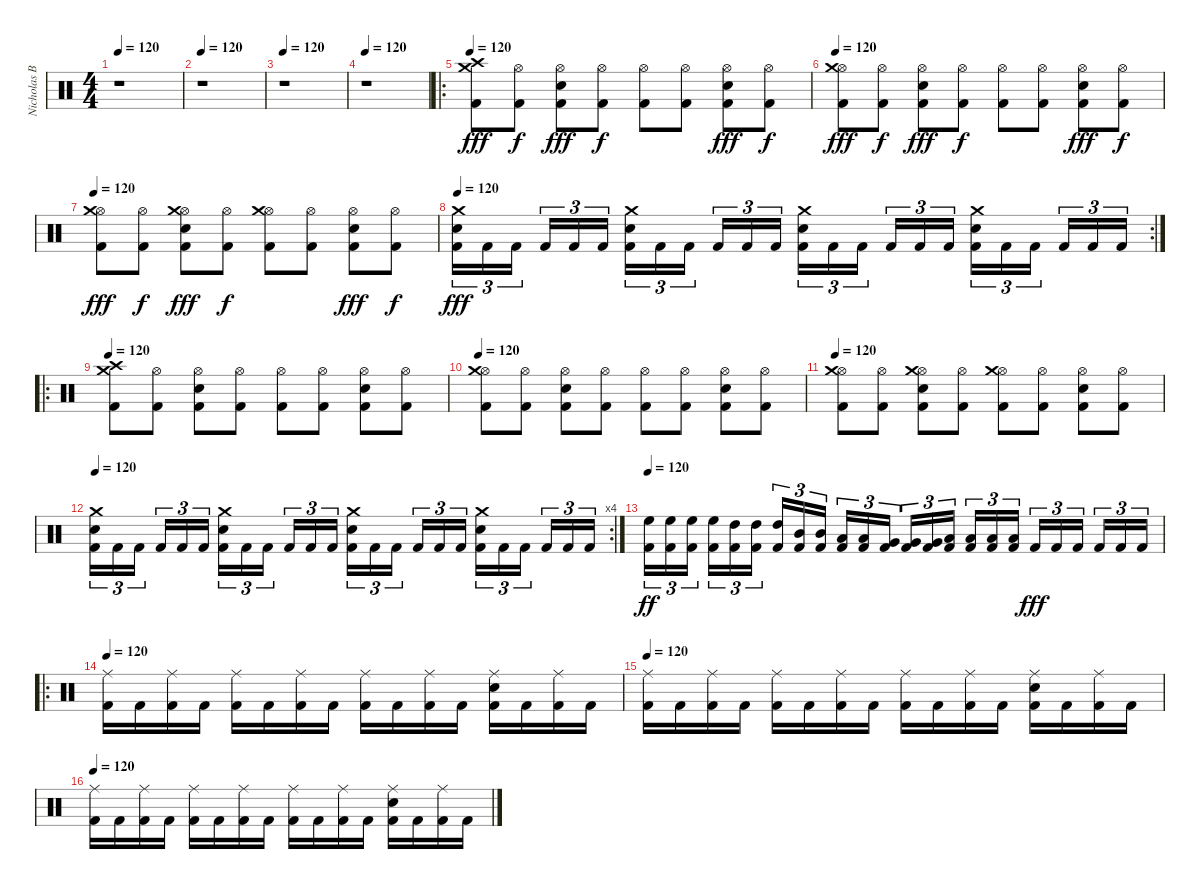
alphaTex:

\track ("Nicholas Barker - (Drums And Percussion)" "Nicholas B") {instrument percussion}
\staff {score}
\articulation defaults
\ts (4 4)
\tempo 120
\clef neutral
\ks c
r.1{dy fff} |
\tempo 120
r.1 |
\tempo 120
r.1 |
\tempo 120
r.1 |
\ro
\tempo 120
("Crash high (hit)" "Crash medium (hit)" "Kick (hit) 2").8 ("Hi-Hat (open)" "Kick (hit) 2").8{dy f} ("Hi-Hat (open)" "Electric Snare (hit)" "Kick (hit) 2").8{dy fff} ("Hi-Hat (open)" "Kick (hit) 2").8{dy f} ("Hi-Hat (open)" "Kick (hit) 2").8 ("Hi-Hat (open)" "Kick (hit) 2").8 ("Hi-Hat (open)" "Electric Snare (hit)" "Kick (hit) 2").8{dy fff} ("Hi-Hat (open)" "Kick (hit) 2").8{dy f} |
\tempo 120
("Hi-Hat (open)" "Crash medium (hit)" "Kick (hit) 2").8{dy fff} ("Hi-Hat (open)" "Kick (hit) 2").8{dy f} ("Hi-Hat (open)" "Electric Snare (hit)" "Kick (hit) 2").8{dy fff} ("Hi-Hat (open)" "Kick (hit) 2").8{dy f} ("Hi-Hat (open)" "Kick (hit) 2").8 ("Hi-Hat (open)" "Kick (hit) 2").8 ("Hi-Hat (open)" "Electric Snare (hit)" "Kick (hit) 2").8{dy fff} ("Hi-Hat (open)" "Kick (hit) 2").8{dy f} |
\tempo 120
("Hi-Hat (open)" "Crash medium (hit)" "Kick (hit) 2").8{dy fff} ("Hi-Hat (open)" "Kick (hit) 2").8{dy f} ("Hi-Hat (open)" "Crash medium (hit)" "Electric Snare (hit)" "Kick (hit) 2").8{dy fff} ("Hi-Hat (open)" "Kick (hit) 2").8{dy f} ("Hi-Hat (open)" "Crash medium (hit)" "Kick (hit) 2").8 ("Hi-Hat (open)" "Kick (hit) 2").8 ("Hi-Hat (open)" "Electric Snare (hit)" "Kick (hit) 2").8{dy fff} ("Hi-Hat (open)" "Kick (hit) 2").8{dy f} |
\rc 2
\tempo 120
("Crash medium (hit)" "Electric Snare (hit)" "Kick (hit) 2").16{tu (3 2) dy fff} "Kick (hit) 2".16{tu (3 2)} "Kick (hit) 2".16{tu (3 2)} "Kick (hit) 2".16{tu (3 2)} "Kick (hit) 2".16{tu (3 2)} "Kick (hit) 2".16{tu (3 2)} ("Crash medium (hit)" "Electric Snare (hit)" "Kick (hit) 2").16{tu (3 2)} "Kick (hit) 2".16{tu (3 2)} "Kick (hit) 2".16{tu (3 2)} "Kick (hit) 2".16{tu (3 2)} "Kick (hit) 2".16{tu (3 2)} "Kick (hit) 2".16{tu (3 2)} ("Crash medium (hit)" "Electric Snare (hit)" "Kick (hit) 2").16{tu (3 2)} "Kick (hit) 2".16{tu (3 2)} "Kick (hit) 2".16{tu (3 2)} "Kick (hit) 2".16{tu (3 2)} "Kick (hit) 2".16{tu (3 2)} "Kick (hit) 2".16{tu (3 2)} ("Crash medium (hit)" "Electric Snare (hit)" "Kick (hit) 2").16{tu (3 2)} "Kick (hit) 2".16{tu (3 2)} "Kick (hit) 2".16{tu (3 2)} "Kick (hit) 2".16{tu (3 2)} "Kick (hit) 2".16{tu (3 2)} "Kick (hit) 2".16{tu (3 2)} |
\ro
\tempo 120
("Crash high (hit)" "Crash medium (hit)" "Kick (hit) 2").8 ("Hi-Hat (open)" "Kick (hit) 2").8 ("Hi-Hat (open)" "Electric Snare (hit)" "Kick (hit) 2").8 ("Hi-Hat (open)" "Kick (hit) 2").8 ("Hi-Hat (open)" "Kick (hit) 2").8 ("Hi-Hat (open)" "Kick (hit) 2").8 ("Hi-Hat (open)" "Electric Snare (hit)" "Kick (hit) 2").8 ("Hi-Hat (open)" "Kick (hit) 2").8 |
\tempo 120
("Hi-Hat (open)" "Crash medium (hit)" "Kick (hit) 2").8 ("Hi-Hat (open)" "Kick (hit) 2").8 ("Hi-Hat (open)" "Electric Snare (hit)" "Kick (hit) 2").8 ("Hi-Hat (open)" "Kick (hit) 2").8 ("Hi-Hat (open)" "Kick (hit) 2").8 ("Hi-Hat (open)" "Kick (hit) 2").8 ("Hi-Hat (open)" "Electric Snare (hit)" "Kick (hit) 2").8 ("Hi-Hat (open)" "Kick (hit) 2").8 |
\tempo 120
("Hi-Hat (open)" "Crash medium (hit)" "Kick (hit) 2").8 ("Hi-Hat (open)" "Kick (hit) 2").8 ("Hi-Hat (open)" "Crash medium (hit)" "Electric Snare (hit)" "Kick (hit) 2").8 ("Hi-Hat (open)" "Kick (hit) 2").8 ("Hi-Hat (open)" "Crash medium (hit)" "Kick (hit) 2").8 ("Hi-Hat (open)" "Kick (hit) 2").8 ("Hi-Hat (open)" "Electric Snare (hit)" "Kick (hit) 2").8 ("Hi-Hat (open)" "Kick (hit) 2").8 |
\rc 4
\tempo 120
("Crash medium (hit)" "Electric Snare (hit)" "Kick (hit) 2").16{tu (3 2)} "Kick (hit) 2".16{tu (3 2)} "Kick (hit) 2".16{tu (3 2)} "Kick (hit) 2".16{tu (3 2)} "Kick (hit) 2".16{tu (3 2)} "Kick (hit) 2".16{tu (3 2)} ("Crash medium (hit)" "Electric Snare (hit)" "Kick (hit) 2").16{tu (3 2)} "Kick (hit) 2".16{tu (3 2)} "Kick (hit) 2".16{tu (3 2)} "Kick (hit) 2".16{tu (3 2)} "Kick (hit) 2".16{tu (3 2)} "Kick (hit) 2".16{tu (3 2)} ("Crash medium (hit)" "Electric Snare (hit)" "Kick (hit) 2").16{tu (3 2)} "Kick (hit) 2".16{tu (3 2)} "Kick (hit) 2".16{tu (3 2)} "Kick (hit) 2".16{tu (3 2)} "Kick (hit) 2".16{tu (3 2)} "Kick (hit) 2".16{tu (3 2)} ("Crash medium (hit)" "Electric Snare (hit)" "Kick (hit) 2").16{tu (3 2)} "Kick (hit) 2".16{tu (3 2)} "Kick (hit) 2".16{tu (3 2)} "Kick (hit) 2".16{tu (3 2)} "Kick (hit) 2".16{tu (3 2)} "Kick (hit) 2".16{tu (3 2)} |
\tempo 120
("High Floor Tom (hit)" "Kick (hit) 2").16{tu (3 2) dy ff} ("High Floor Tom (hit)" "Kick (hit) 2").16{tu (3 2)} ("High Floor Tom (hit)" "Kick (hit) 2").16{tu (3 2)} ("High Floor Tom (hit)" "Kick (hit) 2").16{tu (3 2)} ("High Tom (hit)" "Kick (hit) 2").16{tu (3 2)} ("High Tom (hit)" "Kick (hit) 2").16{tu (3 2)} ("High Tom (hit)" "Kick (hit) 2").16{tu (3 2)} ("Mid Tom (hit)" "Kick (hit) 2").16{tu (3 2)} ("Mid Tom (hit)" "Kick (hit) 2").16{tu (3 2)} ("Low Tom (hit)" "Kick (hit) 2").16{tu (3 2)} ("Low Tom (hit)" "Kick (hit) 2").16{tu (3 2)} ("Very Low Tom (hit)" "Kick (hit) 2").16{tu (3 2)} ("Very Low Tom (hit)" "Kick (hit) 2").16{tu (3 2)} ("Very Low Tom (hit)" "Kick (hit) 2").16{tu (3 2)} ("Low Floor Tom (hit)" "Kick (hit) 2").16{tu (3 2)} ("Low Floor Tom (hit)" "Kick (hit) 2").16{tu (3 2)} ("Low Floor Tom (hit)" "Kick (hit) 2").16{tu (3 2)} ("Low Floor Tom (hit)" "Kick (hit) 2").16{tu (3 2)} "Kick (hit) 2".16{tu (3 2) dy fff} "Kick (hit) 2".16{tu (3 2)} "Kick (hit) 2".16{tu (3 2)} "Kick (hit) 2".16{tu (3 2)} "Kick (hit) 2".16{tu (3 2)} "Kick (hit) 2".16{tu (3 2)} |
\ro
\tempo 120
("Ride (middle)" "Kick (hit) 2").16 "Kick (hit) 2".16 ("Ride (middle)" "Kick (hit) 2").16 "Kick (hit) 2".16 ("Ride (middle)" "Kick (hit) 2").16 "Kick (hit) 2".16 ("Ride (middle)" "Kick (hit) 2").16 "Kick (hit) 2".16 ("Ride (middle)" "Kick (hit) 2").16 "Kick (hit) 2".16 ("Ride (middle)" "Kick (hit) 2").16 "Kick (hit) 2".16 ("Snare (hit) 2" "Ride (middle)" "Kick (hit) 2").16 "Kick (hit) 2".16 ("Ride (middle)" "Kick (hit) 2").16 "Kick (hit) 2".16 |
\tempo 120
("Ride (middle)" "Kick (hit) 2").16 "Kick (hit) 2".16 ("Ride (middle)" "Kick (hit) 2").16 "Kick (hit) 2".16 ("Ride (middle)" "Kick (hit) 2").16 "Kick (hit) 2".16 ("Ride (middle)" "Kick (hit) 2").16 "Kick (hit) 2".16 ("Ride (middle)" "Kick (hit) 2").16 "Kick (hit) 2".16 ("Ride (middle)" "Kick (hit) 2").16 "Kick (hit) 2".16 ("Snare (hit) 2" "Ride (middle)" "Kick (hit) 2").16 "Kick (hit) 2".16 ("Ride (middle)" "Kick (hit) 2").16 "Kick (hit) 2".16 |
\tempo 120
("Ride (middle)" "Kick (hit) 2").16 "Kick (hit) 2".16 ("Ride (middle)" "Kick (hit) 2").16 "Kick (hit) 2".16 ("Ride (middle)" "Kick (hit) 2").16 "Kick (hit) 2".16 ("Ride (middle)" "Kick (hit) 2").16 "Kick (hit) 2".16 ("Ride (middle)" "Kick (hit) 2").16 "Kick (hit) 2".16 ("Ride (middle)" "Kick (hit) 2").16 "Kick (hit) 2".16 ("Snare (hit) 2" "Ride (middle)" "Kick (hit) 2").16 "Kick (hit) 2".16 ("Ride (middle)" "Kick (hit) 2").16 "Kick (hit) 2".16
